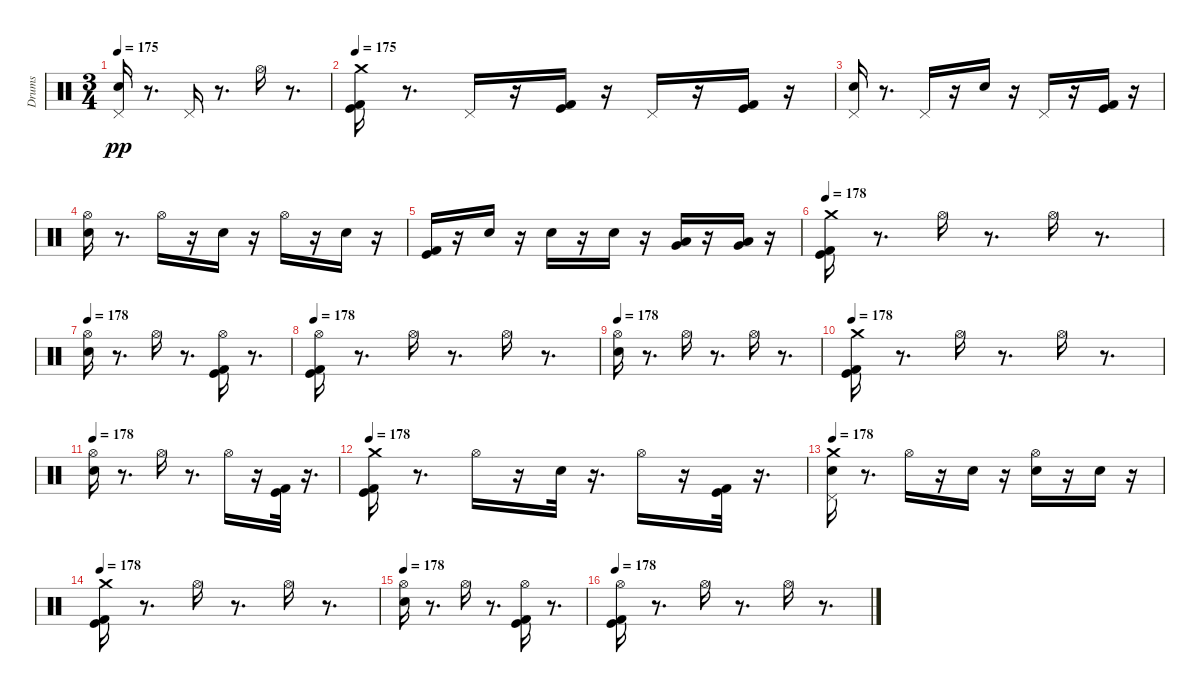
\track ("Drums" "Drums") {instrument percussion}
\staff {score}
\articulation defaults
\ts (3 4)
\tempo 175
\clef neutral
\ks c
("Pedal Hi-Hat (hit)" "Snare (hit) 2").16{dy pp} r.8{d} "Pedal Hi-Hat (hit)".16 r.8{d} "Hi-Hat (open)".16 r.8{d} |
\tempo 175
("Crash medium (hit)" "Kick (hit) 2" "Kick (hit)").16 r.8{d} "Pedal Hi-Hat (hit)".16 r.16 ("Kick (hit) 2" "Kick (hit)").16 r.16 "Pedal Hi-Hat (hit)".16 r.16 ("Kick (hit) 2" "Kick (hit)").16 r.16 |
("Pedal Hi-Hat (hit)" "Snare (hit) 2").16 r.8{d} "Pedal Hi-Hat (hit)".16 r.16 "Snare (hit) 2".16 r.16 "Pedal Hi-Hat (hit)".16 r.16 ("Kick (hit) 2" "Kick (hit)").16 r.16 |
("Snare (hit) 2" "Hi-Hat (open)").16 r.8{d} "Hi-Hat (open)".16 r.16 "Snare (hit) 2".16 r.16 "Hi-Hat (open)".16 r.16 "Snare (hit) 2".16 r.16 |
("Kick (hit) 2" "Kick (hit)").16 r.16 "Snare (hit) 2".16 r.16 "Snare (hit) 2".16 r.16 "Snare (hit) 2".16 r.16 ("Low Tom (hit)" "Very Low Tom (hit)").16 r.16 ("Low Tom (hit)" "Very Low Tom (hit)").16 r.16 |
\tempo 178
("Crash medium (hit)" "Kick (hit) 2" "Kick (hit)").16 r.8{d} "Hi-Hat (open)".16 r.8{d} "Hi-Hat (open)".16 r.8{d} |
\tempo 178
("Hi-Hat (open)" "Snare (hit) 2").16 r.8{d} "Hi-Hat (open)".16 r.8{d} ("Hi-Hat (open)" "Kick (hit) 2" "Kick (hit)").16 r.8{d} |
\tempo 178
("Hi-Hat (open)" "Kick (hit) 2" "Kick (hit)").16 r.8{d} "Hi-Hat (open)".16 r.8{d} "Hi-Hat (open)".16 r.8{d} |
\tempo 178
("Hi-Hat (open)" "Snare (hit) 2").16 r.8{d} "Hi-Hat (open)".16 r.8{d} "Hi-Hat (open)".16 r.8{d} |
\tempo 178
("Crash medium (hit)" "Kick (hit) 2" "Kick (hit)").16 r.8{d} "Hi-Hat (open)".16 r.8{d} "Hi-Hat (open)".16 r.8{d} |
\tempo 178
("Hi-Hat (open)" "Snare (hit) 2").16 r.8{d} "Hi-Hat (open)".16 r.8{d} "Hi-Hat (open)".16 r.16 ("Kick (hit) 2" "Kick (hit)").32 r.16{d} |
\tempo 178
("Kick (hit)" "Kick (hit) 2" "Crash medium (hit)").16 r.8{d} "Hi-Hat (open)".16 r.16 "Snare (hit) 2".32 r.16{d} "Hi-Hat (open)".16 r.16 ("Kick (hit) 2" "Kick (hit)").32 r.16{d} |
\tempo 178
("Crash medium (hit)" "Pedal Hi-Hat (hit)" "Snare (hit) 2").16 r.8{d} "Hi-Hat (open)".16 r.16 "Snare (hit) 2".16 r.16 ("Hi-Hat (open)" "Snare (hit) 2").16 r.16 "Snare (hit) 2".16 r.16 |
\tempo 178
("Crash medium (hit)" "Kick (hit) 2" "Kick (hit)").16 r.8{d} "Hi-Hat (open)".16 r.8{d} "Hi-Hat (open)".16 r.8{d} |
\tempo 178
("Hi-Hat (open)" "Snare (hit) 2").16 r.8{d} "Hi-Hat (open)".16 r.8{d} ("Hi-Hat (open)" "Kick (hit) 2" "Kick (hit)").16 r.8{d} |
\tempo 178
("Hi-Hat (open)" "Kick (hit) 2" "Kick (hit)").16 r.8{d} "Hi-Hat (open)".16 r.8{d} "Hi-Hat (open)".16 r.8{d}
